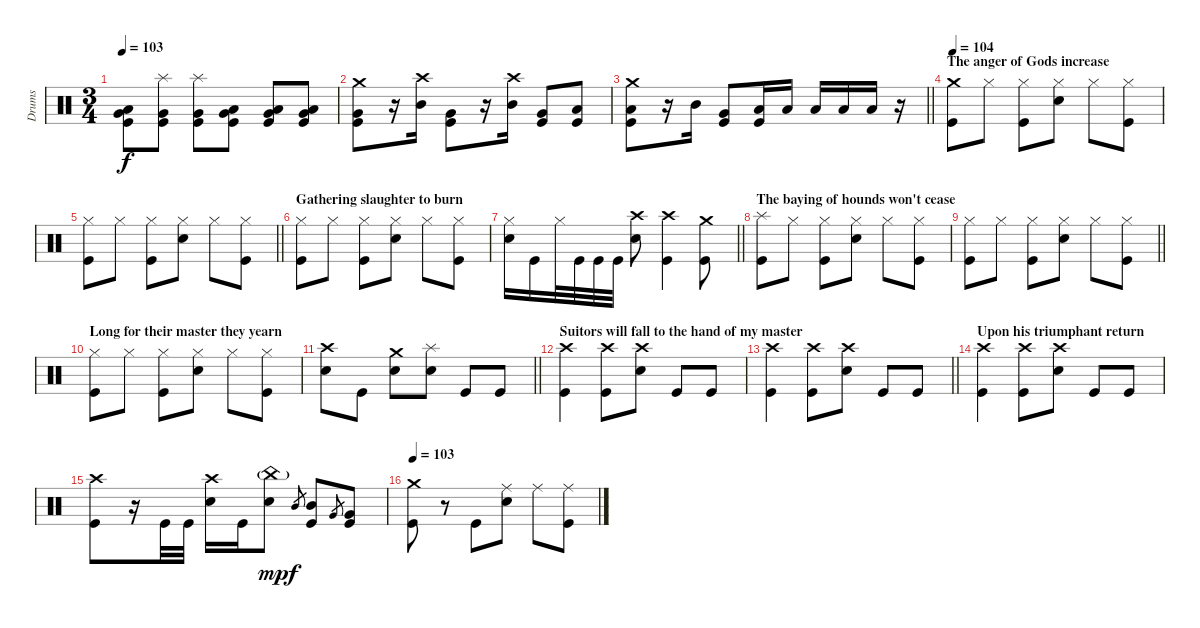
\track ("Drums" "Drums") {instrument percussion}
\staff {score}
\articulation defaults
\ts (3 4)
\tempo 103
\clef neutral
\ks c
("Low Tom (hit)" "Very Low Tom (hit)" "Kick (hit)").8{dy f} ("Splash (hit)" "Very Low Tom (hit)" "Kick (hit)").8 ("Splash (hit)" "Very Low Tom (hit)" "Kick (hit)").8 ("Very Low Tom (hit)" "Low Floor Tom (hit)" "Kick (hit)").8 ("Very Low Tom (hit)" "Low Floor Tom (hit)" "Kick (hit)").8 ("Very Low Tom (hit)" "Low Floor Tom (hit)" "Kick (hit)").8 |
("Crash medium (hit)" "Very Low Tom (hit)" "Kick (hit)").8 r.16 ("Crash high (hit)" "Mid Tom (hit)").16 ("Very Low Tom (hit)" "Kick (hit)").8 r.16 ("Crash high (hit)" "Mid Tom (hit)").16 ("Very Low Tom (hit)" "Kick (hit)").8 ("Low Tom (hit)" "Kick (hit)").8 |
\barLineRight lightlight
("Crash medium (hit)" "Low Tom (hit)" "Kick (hit)").8 r.16 "Mid Tom (hit)".16 ("Very Low Tom (hit)" "Kick (hit)").8 ("Low Tom (hit)" "Kick (hit)").16 "Low Tom (hit)".16 "Low Tom (hit)".16 "Low Tom (hit)".16 "Low Tom (hit)".16 r.16 |
\section ("" "The anger of Gods increase")
\tempo 104
("Crash medium (hit)" "Kick (hit)").8 "Hi-Hat (closed)".8 ("Hi-Hat (closed)" "Kick (hit)").8 ("Hi-Hat (closed)" "Snare (hit) 2").8 "Hi-Hat (closed)".8 ("Hi-Hat (closed)" "Kick (hit)").8 |
\barLineRight lightlight
("Hi-Hat (closed)" "Kick (hit)").8 "Hi-Hat (closed)".8 ("Hi-Hat (closed)" "Kick (hit)").8 ("Hi-Hat (closed)" "Snare (hit) 2").8 "Hi-Hat (closed)".8 ("Hi-Hat (closed)" "Kick (hit)").8 |
\section ("" "Gathering slaughter to burn")
("Hi-Hat (closed)" "Kick (hit)").8 "Hi-Hat (closed)".8 ("Hi-Hat (closed)" "Kick (hit)").8 ("Hi-Hat (closed)" "Snare (hit) 2").8 "Hi-Hat (closed)".8 ("Hi-Hat (closed)" "Kick (hit)").8 |
\barLineRight lightlight
("Hi-Hat (closed)" "Snare (hit) 2").16 "Kick (hit)".16 "Hi-Hat (closed)".32 "Kick (hit)".32 "Kick (hit)".32 "Kick (hit)".32 ("Crash high (hit)" "Snare (hit) 2").8 ("Crash high (hit)" "Kick (hit)").4 ("Crash medium (hit)" "Kick (hit)").8 |
\section ("" "The baying of hounds won't cease")
("Splash (hit)" "Kick (hit)").8 "Hi-Hat (closed)".8 ("Hi-Hat (closed)" "Kick (hit)").8 ("Hi-Hat (closed)" "Snare (hit) 2").8 "Hi-Hat (closed)".8 ("Hi-Hat (closed)" "Kick (hit)").8 |
\barLineRight lightlight
("Hi-Hat (closed)" "Kick (hit)").8 "Hi-Hat (closed)".8 ("Hi-Hat (closed)" "Kick (hit)").8 ("Hi-Hat (closed)" "Snare (hit) 2").8 "Hi-Hat (closed)".8 ("Hi-Hat (closed)" "Kick (hit)").8 |
\section ("" "Long for their master they yearn")
("Hi-Hat (closed)" "Kick (hit)").8 "Hi-Hat (closed)".8 ("Hi-Hat (closed)" "Kick (hit)").8 ("Hi-Hat (closed)" "Snare (hit) 2").8 "Hi-Hat (closed)".8 ("Hi-Hat (closed)" "Kick (hit)").8 |
\barLineRight lightlight
("Crash high (hit)" "Snare (hit) 2").8 "Kick (hit)".8 ("Crash medium (hit)" "Snare (hit) 2").8 ("Splash (hit)" "Snare (hit) 2").8 "Kick (hit)".8 "Kick (hit)".8 |
\section ("" "Suitors will fall to the hand of my master")
("Crash high (hit)" "Kick (hit)").4 ("Crash high (hit)" "Kick (hit)").8 ("Crash high (hit)" "Snare (hit) 2").8 "Kick (hit)".8 "Kick (hit)".8 |
\barLineRight lightlight
("Crash high (hit)" "Kick (hit)").4 ("Crash high (hit)" "Kick (hit)").8 ("Crash high (hit)" "Snare (hit) 2").8 "Kick (hit)".8 "Kick (hit)".8 |
\section ("" "Upon his triumphant return")
("Crash high (hit)" "Kick (hit)").4 ("Crash high (hit)" "Kick (hit)").8 ("Crash high (hit)" "Snare (hit) 2").8 "Kick (hit)".8 "Kick (hit)".8 |
("Crash high (hit)" "Kick (hit)").8 r.16 "Kick (hit)".32 "Kick (hit)".32 ("Crash high (hit)" "Snare (hit) 2").16 "Kick (hit)".16 ("China (hit)"{g} "Snare (hit) 2").8{dy mp} "Mid Tom (hit)".8{gr dy f} ("Mid Tom (hit)" "Kick (hit)").8 "Very Low Tom (hit)".8{gr} ("Very Low Tom (hit)" "Kick (hit)").8 |
\tempo 103
("Crash medium (hit)" "Kick (hit)").8 r.8 "Kick (hit)".8 ("Ride (middle)" "Snare (hit) 2").8 "Ride (middle)".8 ("Ride (middle)" "Kick (hit)").8
